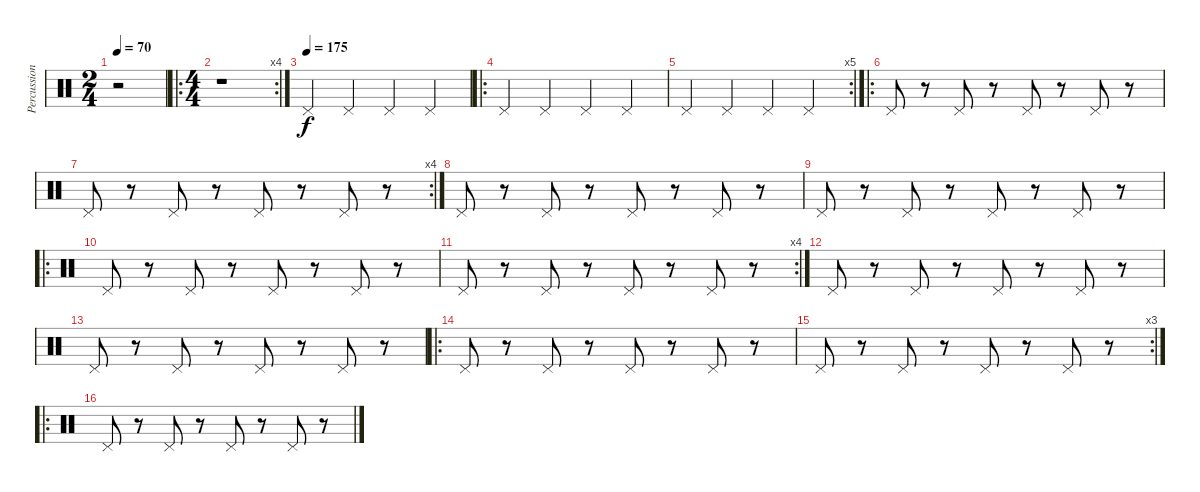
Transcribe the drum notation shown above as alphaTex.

\track ("Percussion" "Percussion") {instrument percussion}
\staff {score}
\articulation defaults
\ts (2 4)
\tempo 70
\clef neutral
\ks c
r.2{dy f} |
\ro
\rc 4
\ts (4 4)
r.1 |
\tempo (175)
"Pedal Hi-Hat (hit)".4 "Pedal Hi-Hat (hit)".4 "Pedal Hi-Hat (hit)".4 "Pedal Hi-Hat (hit)".4 |
\ro "Pedal Hi-Hat (hit)".4 "Pedal Hi-Hat (hit)".4 "Pedal Hi-Hat (hit)".4 "Pedal Hi-Hat (hit)".4
|
\rc 5 "Pedal Hi-Hat (hit)".4 "Pedal Hi-Hat (hit)".4 "Pedal Hi-Hat (hit)".4 "Pedal Hi-Hat (hit)".4
|
\ro "Pedal Hi-Hat (hit)".8
r.8 "Pedal Hi-Hat (hit)".8 r.8 "Pedal Hi-Hat (hit)".8 r.8 "Pedal Hi-Hat (hit)".8 r.8 |
\rc 4 "Pedal Hi-Hat (hit)".8
r.8 "Pedal Hi-Hat (hit)".8 r.8 "Pedal Hi-Hat (hit)".8 r.8 "Pedal Hi-Hat (hit)".8 r.8 |
"Pedal Hi-Hat (hit)".8 r.8 "Pedal Hi-Hat (hit)".8 r.8 "Pedal Hi-Hat (hit)".8 r.8 "Pedal Hi-Hat (hit)".8 r.8 |
"Pedal Hi-Hat (hit)".8 r.8 "Pedal Hi-Hat (hit)".8 r.8 "Pedal Hi-Hat (hit)".8 r.8 "Pedal Hi-Hat (hit)".8 r.8 |
\ro "Pedal Hi-Hat (hit)".8
r.8 "Pedal Hi-Hat (hit)".8 r.8 "Pedal Hi-Hat (hit)".8 r.8 "Pedal Hi-Hat (hit)".8 r.8 |
\rc 4 "Pedal Hi-Hat (hit)".8
r.8 "Pedal Hi-Hat (hit)".8 r.8 "Pedal Hi-Hat (hit)".8 r.8 "Pedal Hi-Hat (hit)".8 r.8 |
"Pedal Hi-Hat (hit)".8 r.8 "Pedal Hi-Hat (hit)".8 r.8 "Pedal Hi-Hat (hit)".8 r.8 "Pedal Hi-Hat (hit)".8 r.8 |
"Pedal Hi-Hat (hit)".8 r.8 "Pedal Hi-Hat (hit)".8 r.8 "Pedal Hi-Hat (hit)".8 r.8 "Pedal Hi-Hat (hit)".8 r.8 |
\ro "Pedal Hi-Hat (hit)".8
r.8 "Pedal Hi-Hat (hit)".8 r.8 "Pedal Hi-Hat (hit)".8 r.8 "Pedal Hi-Hat (hit)".8 r.8 |
\rc 3 "Pedal Hi-Hat (hit)".8
r.8 "Pedal Hi-Hat (hit)".8 r.8 "Pedal Hi-Hat (hit)".8 r.8 "Pedal Hi-Hat (hit)".8 r.8 |
\ro "Pedal Hi-Hat (hit)".8
r.8 "Pedal Hi-Hat (hit)".8 r.8 "Pedal Hi-Hat (hit)".8 r.8 "Pedal Hi-Hat (hit)".8 r.8
